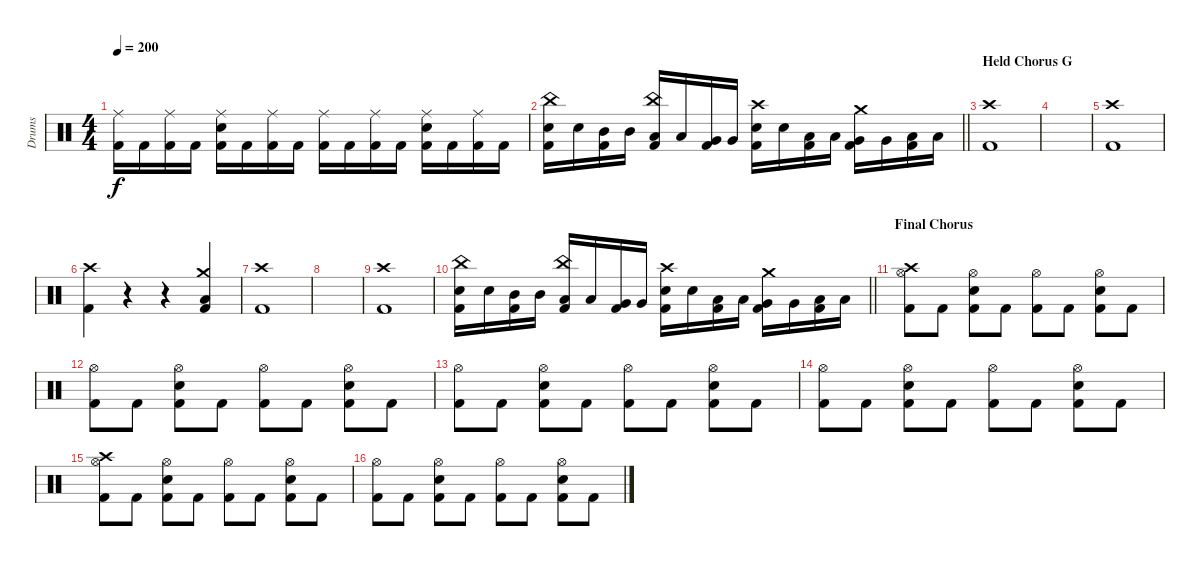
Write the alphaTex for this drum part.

\track ("Drums" "Drums") {instrument percussion}
\staff {score}
\articulation defaults
\ts (4 4)
\tempo 200
\clef neutral
\ks c
("Ride (middle)" "Kick (hit) 2").16{dy f} "Kick (hit) 2".16 ("Ride (middle)" "Kick (hit) 2").16 "Kick (hit) 2".16 ("Ride (middle)" "Snare (hit) 2" "Kick (hit) 2").16 "Kick (hit) 2".16 ("Ride (middle)" "Kick (hit) 2").16 "Kick (hit) 2".16 ("Ride (middle)" "Kick (hit) 2").16 "Kick (hit) 2".16 ("Ride (middle)" "Kick (hit) 2").16 "Kick (hit) 2".16 ("Ride (middle)" "Snare (hit) 2" "Kick (hit) 2").16 "Kick (hit) 2".16 ("Ride (middle)" "Kick (hit) 2").16 "Kick (hit) 2".16 |
\barLineRight lightlight
("China (hit)" "Snare (hit) 2" "Kick (hit) 2").16 "Snare (hit) 2".16 ("Mid Tom (hit)" "Kick (hit) 2").16 "Mid Tom (hit)".16 ("China (hit)" "Low Tom (hit)" "Kick (hit) 2").16 "Low Tom (hit)".16 ("Very Low Tom (hit)" "Kick (hit) 2").16 "Very Low Tom (hit)".16 ("Crash high (hit)" "Snare (hit) 2" "Kick (hit) 2").16 "Snare (hit) 2".16 ("Low Tom (hit)" "Kick (hit) 2").16 "Low Tom (hit)".16 ("Crash medium (hit)" "Very Low Tom (hit)" "Kick (hit) 2").16 "Very Low Tom (hit)".16 ("Low Floor Tom (hit)" "Kick (hit) 2").16 "Low Floor Tom (hit)".16 |
\section ("" "Held Chorus G")
("Crash high (hit)" "Kick (hit) 2").1 |
|
("Crash high (hit)" "Kick (hit) 2").1 |
("Crash high (hit)" "Kick (hit) 2").4 r.4 r.4 ("Crash medium (hit)" "Low Floor Tom (hit)" "Kick (hit) 2").4 |
("Crash high (hit)" "Kick (hit) 2").1 |
|
("Crash high (hit)" "Kick (hit) 2").1 |
\barLineRight lightlight
("China (hit)" "Snare (hit) 2" "Kick (hit) 2").16 "Snare (hit) 2".16 ("Mid Tom (hit)" "Kick (hit) 2").16 "Mid Tom (hit)".16 ("China (hit)" "Low Tom (hit)" "Kick (hit) 2").16 "Low Tom (hit)".16 ("Very Low Tom (hit)" "Kick (hit) 2").16 "Very Low Tom (hit)".16 ("Crash high (hit)" "Snare (hit) 2" "Kick (hit) 2").16 "Snare (hit) 2".16 ("Low Tom (hit)" "Kick (hit) 2").16 "Low Tom (hit)".16 ("Crash medium (hit)" "Very Low Tom (hit)" "Kick (hit) 2").16 "Very Low Tom (hit)".16 ("Low Floor Tom (hit)" "Kick (hit) 2").16 "Low Floor Tom (hit)".16 |
\section ("" "Final Chorus")
("Crash high (hit)" "Hi-Hat (open)" "Kick (hit) 2").8 "Kick (hit) 2".8 ("Hi-Hat (open)" "Snare (hit) 2" "Kick (hit) 2").8 "Kick (hit) 2".8 ("Hi-Hat (open)" "Kick (hit) 2").8 "Kick (hit) 2".8 ("Hi-Hat (open)" "Snare (hit) 2" "Kick (hit) 2").8 "Kick (hit) 2".8 |
("Hi-Hat (open)" "Kick (hit) 2").8 "Kick (hit) 2".8 ("Hi-Hat (open)" "Snare (hit) 2" "Kick (hit) 2").8 "Kick (hit) 2".8 ("Hi-Hat (open)" "Kick (hit) 2").8 "Kick (hit) 2".8 ("Hi-Hat (open)" "Snare (hit) 2" "Kick (hit) 2").8 "Kick (hit) 2".8 |
("Hi-Hat (open)" "Kick (hit) 2").8 "Kick (hit) 2".8 ("Hi-Hat (open)" "Snare (hit) 2" "Kick (hit) 2").8 "Kick (hit) 2".8 ("Hi-Hat (open)" "Kick (hit) 2").8 "Kick (hit) 2".8 ("Hi-Hat (open)" "Snare (hit) 2" "Kick (hit) 2").8 "Kick (hit) 2".8 |
("Hi-Hat (open)" "Kick (hit) 2").8 "Kick (hit) 2".8 ("Hi-Hat (open)" "Snare (hit) 2" "Kick (hit) 2").8 "Kick (hit) 2".8 ("Hi-Hat (open)" "Kick (hit) 2").8 "Kick (hit) 2".8 ("Hi-Hat (open)" "Snare (hit) 2" "Kick (hit) 2").8 "Kick (hit) 2".8 |
("Crash high (hit)" "Hi-Hat (open)" "Kick (hit) 2").8 "Kick (hit) 2".8 ("Hi-Hat (open)" "Snare (hit) 2" "Kick (hit) 2").8 "Kick (hit) 2".8 ("Hi-Hat (open)" "Kick (hit) 2").8 "Kick (hit) 2".8 ("Hi-Hat (open)" "Snare (hit) 2" "Kick (hit) 2").8 "Kick (hit) 2".8 |
("Hi-Hat (open)" "Kick (hit) 2").8 "Kick (hit) 2".8 ("Hi-Hat (open)" "Snare (hit) 2" "Kick (hit) 2").8 "Kick (hit) 2".8 ("Hi-Hat (open)" "Kick (hit) 2").8 "Kick (hit) 2".8 ("Hi-Hat (open)" "Snare (hit) 2" "Kick (hit) 2").8 "Kick (hit) 2".8
